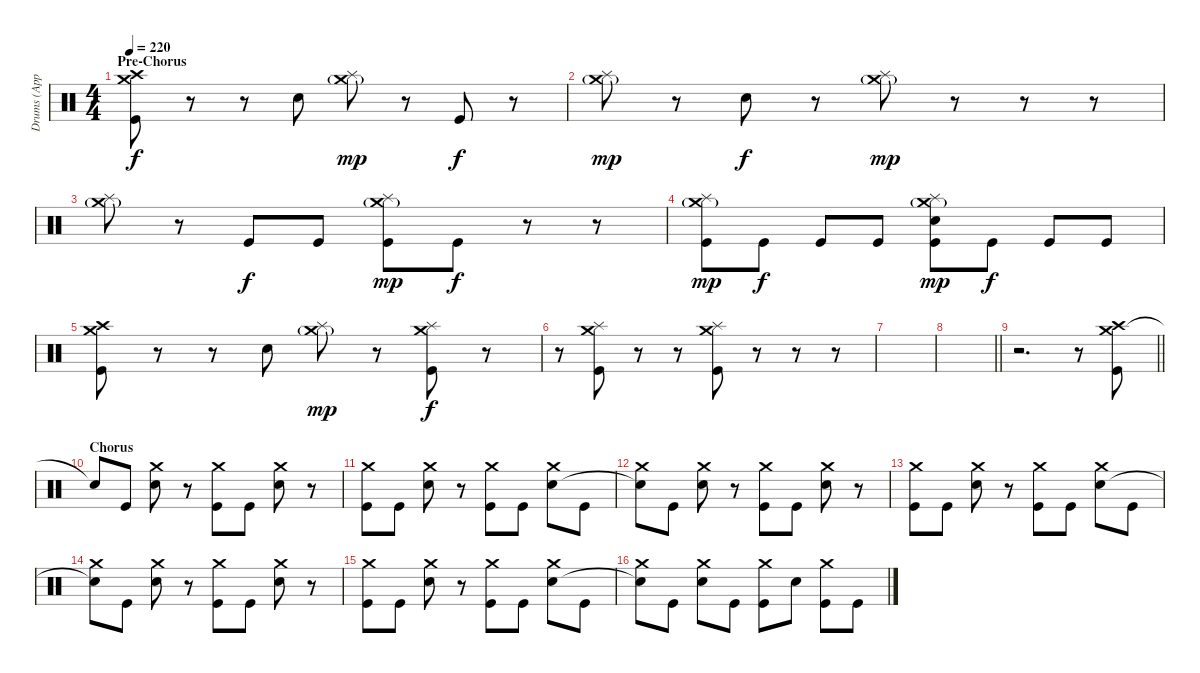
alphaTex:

\track ("Drums (Approx.)" "Drums (App") {instrument percussion}
\staff {score}
\articulation defaults
\ts (4 4)
\section ("" "Pre-Chorus")
\tempo 220
\clef neutral
\ks c
("Crash medium (hit)" "Crash high (hit)" "Kick (hit)").8{dy f} r.8 r.8 "Electric Snare (hit)".8 ("Crash medium (hit)"{g} "Splash (hit)").8{dy mp} r.8 "Kick (hit)".8{dy f} r.8 |
("Crash medium (hit)"{g} "Splash (hit)").8{dy mp} r.8 "Electric Snare (hit)".8{dy f} r.8 ("Crash medium (hit)"{g} "Splash (hit)").8{dy mp} r.8 r.8 r.8 |
("Crash medium (hit)"{g} "Splash (hit)").8 r.8 "Kick (hit)".8{dy f} "Kick (hit)".8 ("Crash medium (hit)"{g} "Splash (hit)" "Kick (hit)").8{dy mp} "Kick (hit)".8{dy f} r.8 r.8 |
("Crash medium (hit)"{g} "Splash (hit)" "Kick (hit)").8{dy mp} "Kick (hit)".8{dy f} "Kick (hit)".8 "Kick (hit)".8 ("Crash medium (hit)"{g} "Splash (hit)" "Electric Snare (hit)" "Kick (hit)").8{dy mp} "Kick (hit)".8{dy f} "Kick (hit)".8 "Kick (hit)".8 |
("Crash medium (hit)" "Crash high (hit)" "Kick (hit)").8 r.8 r.8 "Electric Snare (hit)".8 ("Crash medium (hit)"{g} "Splash (hit)").8{dy mp} r.8 ("Crash medium (hit)" "Splash (hit)" "Kick (hit)").8{dy f} r.8 |
r.8 ("Crash medium (hit)" "Splash (hit)" "Kick (hit)").8 r.8 r.8 ("Crash medium (hit)" "Splash (hit)" "Kick (hit)").8 r.8 r.8 r.8 |
|
\barLineRight lightlight
|
\barLineRight lightlight
r.2{d} r.8 ("Crash medium (hit)" "Crash high (hit)" "Kick (hit)").8 |
\section ("" "Chorus")
"Snare (hit)"{t}.8 "Kick (hit)".8 ("Crash medium (hit)" "Electric Snare (hit)").8 r.8 ("Crash medium (hit)" "Kick (hit)").8 "Kick (hit)".8 ("Crash medium (hit)" "Electric Snare (hit)").8 r.8 |
("Crash medium (hit)" "Kick (hit)").8 "Kick (hit)".8 ("Crash medium (hit)" "Electric Snare (hit)").8 r.8 ("Crash medium (hit)" "Kick (hit)").8 "Kick (hit)".8 ("Crash medium (hit)" "Electric Snare (hit)").8 "Kick (hit)".8 |
("Crash medium (hit)" "Snare (hit)"{t}).8 "Kick (hit)".8 ("Crash medium (hit)" "Electric Snare (hit)").8 r.8 ("Crash medium (hit)" "Kick (hit)").8 "Kick (hit)".8 ("Crash medium (hit)" "Electric Snare (hit)").8 r.8 |
("Crash medium (hit)" "Kick (hit)").8 "Kick (hit)".8 ("Crash medium (hit)" "Electric Snare (hit)").8 r.8 ("Crash medium (hit)" "Kick (hit)").8 "Kick (hit)".8 ("Crash medium (hit)" "Electric Snare (hit)").8 "Kick (hit)".8 |
("Crash medium (hit)" "Snare (hit)"{t}).8 "Kick (hit)".8 ("Crash medium (hit)" "Electric Snare (hit)").8 r.8 ("Crash medium (hit)" "Kick (hit)").8 "Kick (hit)".8 ("Crash medium (hit)" "Electric Snare (hit)").8 r.8 |
("Crash medium (hit)" "Kick (hit)").8 "Kick (hit)".8 ("Crash medium (hit)" "Electric Snare (hit)").8 r.8 ("Crash medium (hit)" "Kick (hit)").8 "Kick (hit)".8 ("Crash medium (hit)" "Electric Snare (hit)").8 "Kick (hit)".8 |
("Crash medium (hit)" "Snare (hit)"{t}).8 "Kick (hit)".8 ("Crash medium (hit)" "Electric Snare (hit)").8 "Kick (hit)".8 ("Crash medium (hit)" "Kick (hit)").8 "Electric Snare (hit)".8 ("Crash medium (hit)" "Kick (hit)").8 "Kick (hit)".8
